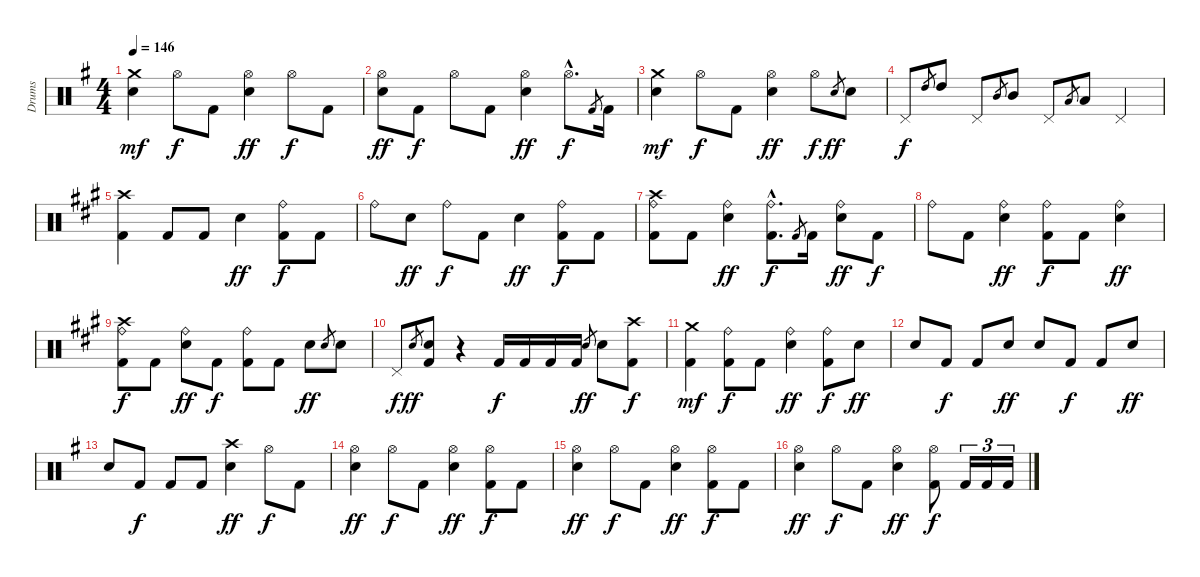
\track ("Drums" "Drums") {instrument percussion}
\staff {score}
\articulation defaults
\ts (4 4)
\tempo 146
\clef neutral
\ks g
("Electric Snare (hit)" "Crash medium (hit)").4{dy mf} "Hi-Hat (open)".8{dy f} "Kick (hit) 2".8 ("Electric Snare (hit)" "Hi-Hat (open)").4{dy ff} "Hi-Hat (open)".8{dy f} "Kick (hit) 2".8 |
("Electric Snare (hit)" "Hi-Hat (open)").8{dy ff} "Kick (hit) 2".8{dy f} "Hi-Hat (open)".8 "Kick (hit) 2".8 ("Electric Snare (hit)" "Hi-Hat (open)").4{dy ff} "Hi-Hat (open)"{hac}.8{d dy f} "Kick (hit) 2".8{gr} "Kick (hit) 2".16 |
("Electric Snare (hit)" "Crash medium (hit)").4{dy mf} "Hi-Hat (open)".8{dy f} "Kick (hit) 2".8 ("Electric Snare (hit)" "Hi-Hat (open)").4{dy ff} "Hi-Hat (open)".8{dy f} "Electric Snare (hit)".8{gr dy ff} "Electric Snare (hit)".8 |
"Pedal Hi-Hat (hit)".8{dy f} "High Tom (hit)".8{gr} "High Tom (hit)".8 "Pedal Hi-Hat (hit)".8 "Mid Tom (hit)".8{gr} "Mid Tom (hit)".8 "Pedal Hi-Hat (hit)".8 "Low Tom (hit)".8{gr} "Low Tom (hit)".8 "Pedal Hi-Hat (hit)".4 |
\ks a
("Kick (hit) 2" "Crash high (hit)").4 "Kick (hit) 2".8 "Kick (hit) 2".8 "Electric Snare (hit)".4{dy ff} ("Kick (hit) 2" "Ride (bell)").8{dy f} "Kick (hit) 2".8 |
"Ride (bell)".8 "Electric Snare (hit)".8{dy ff} "Ride (bell)".8{dy f} "Kick (hit) 2".8 "Electric Snare (hit)".4{dy ff} ("Kick (hit) 2" "Ride (bell)").8{dy f} "Kick (hit) 2".8 |
("Kick (hit) 2" "Crash high (hit)" "Ride (bell)").8 "Kick (hit) 2".8 ("Electric Snare (hit)" "Ride (bell)").4{dy ff} ("Kick (hit) 2"{hac} "Ride (bell)"{hac}).8{d dy f} "Kick (hit) 2".8{gr} "Kick (hit) 2".16 ("Electric Snare (hit)" "Ride (bell)").8{dy ff} "Kick (hit) 2".8{dy f} |
"Ride (bell)".8 "Kick (hit) 2".8 ("Electric Snare (hit)" "Ride (bell)").4{dy ff} ("Kick (hit) 2" "Ride (bell)").8{dy f} "Kick (hit) 2".8 ("Electric Snare (hit)" "Ride (bell)").4{dy ff} |
("Kick (hit) 2" "Crash high (hit)" "Ride (bell)").8{dy f} "Kick (hit) 2".8 ("Electric Snare (hit)" "Ride (bell)").8{dy ff} "Kick (hit) 2".8{dy f} ("Kick (hit) 2" "Ride (bell)").8 "Kick (hit) 2".8 "Electric Snare (hit)".8{dy ff} "Electric Snare (hit)".8{gr} "Electric Snare (hit)".8 |
"Pedal Hi-Hat (hit)".8{dy f} "Electric Snare (hit)".8{gr dy ff} ("Kick (hit) 2" "Electric Snare (hit)").8 r.4 "Kick (hit) 2".16{dy f} "Kick (hit) 2".16 "Kick (hit) 2".16 "Kick (hit) 2".16 "Electric Snare (hit)".8{gr dy ff} "Electric Snare (hit)".8 ("Kick (hit) 2" "Crash high (hit)").8{dy f} |
("Kick (hit) 2" "Crash medium (hit)").4{dy mf} ("Kick (hit) 2" "Ride (bell)").8{dy f} "Kick (hit) 2".8 ("Electric Snare (hit)" "Ride (bell)").4{dy ff} ("Kick (hit) 2" "Ride (bell)").8{dy f} "Electric Snare (hit)".8{dy ff} |
"Electric Snare (hit)".8 "Kick (hit) 2".8{dy f} "Kick (hit) 2".8 "Electric Snare (hit)".8{dy ff} "Electric Snare (hit)".8 "Kick (hit) 2".8{dy f} "Kick (hit) 2".8 "Electric Snare (hit)".8{dy ff} |
\ks g "Electric Snare (hit)".8 "Kick (hit) 2".8{dy f} "Kick (hit) 2".8 "Kick (hit) 2".8
("Electric Snare (hit)" "Crash high (hit)").4{dy ff} "Hi-Hat (open)".8{dy f} "Kick (hit) 2".8 |
("Electric Snare (hit)" "Hi-Hat (open)").4{dy ff} "Hi-Hat (open)".8{dy f} "Kick (hit) 2".8 ("Electric Snare (hit)" "Hi-Hat (open)").4{dy ff} ("Kick (hit) 2" "Hi-Hat (open)").8{dy f} "Kick (hit) 2".8 |
("Electric Snare (hit)" "Hi-Hat (open)").4{dy ff} "Hi-Hat (open)".8{dy f} "Kick (hit) 2".8 ("Electric Snare (hit)" "Hi-Hat (open)").4{dy ff} ("Kick (hit) 2" "Hi-Hat (open)").8{dy f} "Kick (hit) 2".8 |
("Electric Snare (hit)" "Hi-Hat (open)").4{dy ff} "Hi-Hat (open)".8{dy f} "Kick (hit) 2".8 ("Electric Snare (hit)" "Hi-Hat (open)").4{dy ff} ("Kick (hit) 2" "Hi-Hat (open)").8{dy f} "Kick (hit) 2".16{tu (3 2)} "Kick (hit) 2".16{tu (3 2)} "Kick (hit) 2".16{tu (3 2)}
